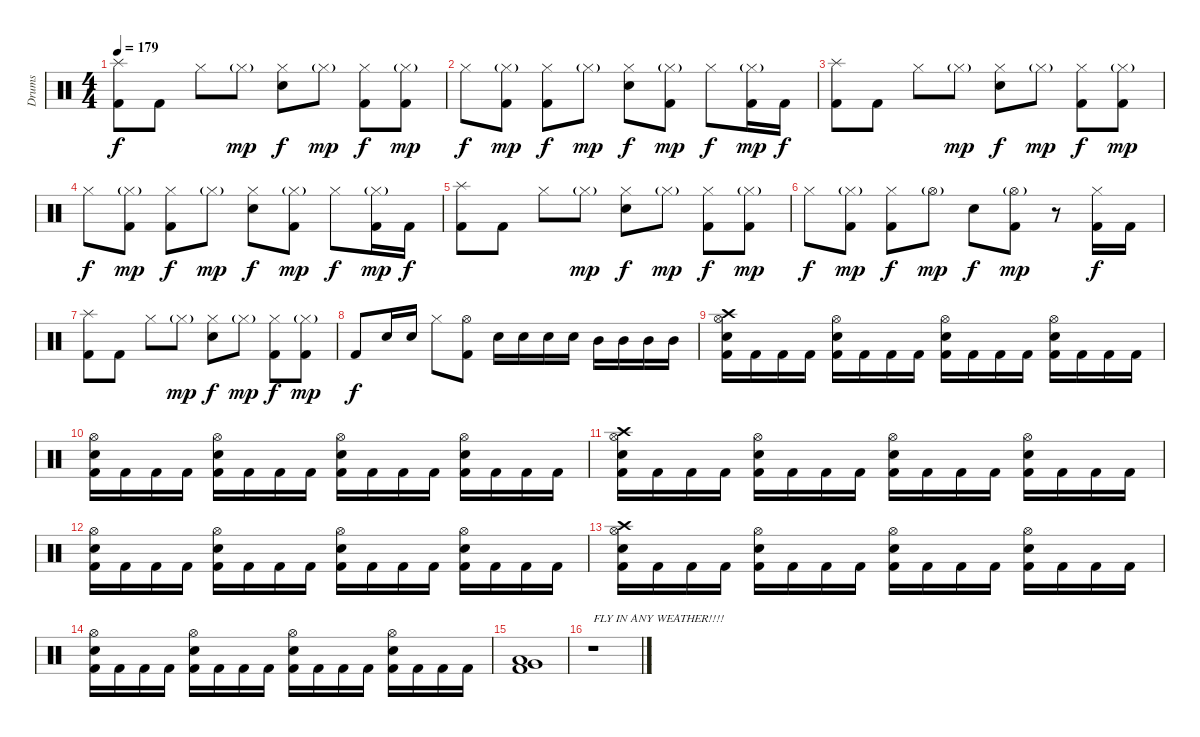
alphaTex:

\track ("Drums" "Drums") {instrument percussion}
\staff {score}
\articulation defaults
\ts (4 4)
\tempo 179
\clef neutral
\ks c
("Splash (hit)" "Kick (hit) 2").8{dy f} "Kick (hit) 2".8 "Hi-Hat (closed)".8 "Hi-Hat (closed)"{g}.8{dy mp} ("Hi-Hat (closed)" "Snare (hit) 2").8{dy f} "Hi-Hat (closed)"{g}.8{dy mp} ("Hi-Hat (closed)" "Kick (hit) 2").8{dy f} ("Hi-Hat (closed)"{g} "Kick (hit) 2").8{dy mp} |
"Hi-Hat (closed)".8{dy f} ("Hi-Hat (closed)"{g} "Kick (hit) 2").8{dy mp} ("Hi-Hat (closed)" "Kick (hit) 2").8{dy f} "Hi-Hat (closed)"{g}.8{dy mp} ("Hi-Hat (closed)" "Snare (hit) 2").8{dy f} ("Hi-Hat (closed)"{g} "Kick (hit) 2").8{dy mp} "Hi-Hat (closed)".8{dy f} ("Hi-Hat (closed)"{g} "Kick (hit) 2").16{dy mp} "Kick (hit) 2".16{dy f} |
("Splash (hit)" "Kick (hit) 2").8 "Kick (hit) 2".8 "Hi-Hat (closed)".8 "Hi-Hat (closed)"{g}.8{dy mp} ("Hi-Hat (closed)" "Snare (hit) 2").8{dy f} "Hi-Hat (closed)"{g}.8{dy mp} ("Hi-Hat (closed)" "Kick (hit) 2").8{dy f} ("Hi-Hat (closed)"{g} "Kick (hit) 2").8{dy mp} |
"Hi-Hat (closed)".8{dy f} ("Hi-Hat (closed)"{g} "Kick (hit) 2").8{dy mp} ("Hi-Hat (closed)" "Kick (hit) 2").8{dy f} "Hi-Hat (closed)"{g}.8{dy mp} ("Hi-Hat (closed)" "Snare (hit) 2").8{dy f} ("Hi-Hat (closed)"{g} "Kick (hit) 2").8{dy mp} "Hi-Hat (closed)".8{dy f} ("Hi-Hat (closed)"{g} "Kick (hit) 2").16{dy mp} "Kick (hit) 2".16{dy f} |
("Splash (hit)" "Kick (hit) 2").8 "Kick (hit) 2".8 "Hi-Hat (closed)".8 "Hi-Hat (closed)"{g}.8{dy mp} ("Hi-Hat (closed)" "Snare (hit) 2").8{dy f} "Hi-Hat (closed)"{g}.8{dy mp} ("Hi-Hat (closed)" "Kick (hit) 2").8{dy f} ("Hi-Hat (closed)"{g} "Kick (hit) 2").8{dy mp} |
"Hi-Hat (closed)".8{dy f} ("Hi-Hat (closed)"{g} "Kick (hit) 2").8{dy mp} ("Hi-Hat (closed)" "Kick (hit) 2").8{dy f} "Hi-Hat (open)"{g}.8{dy mp} "Snare (hit) 2".8{dy f} ("Hi-Hat (open)"{g} "Kick (hit) 2").8{dy mp} r.8 ("Hi-Hat (closed)" "Kick (hit) 2").16{dy f} "Kick (hit) 2".16 |
("Splash (hit)" "Kick (hit) 2").8 "Kick (hit) 2".8 "Hi-Hat (closed)".8 "Hi-Hat (closed)"{g}.8{dy mp} ("Hi-Hat (closed)" "Snare (hit) 2").8{dy f} "Hi-Hat (closed)"{g}.8{dy mp} ("Hi-Hat (closed)" "Kick (hit) 2").8{dy f} ("Hi-Hat (closed)"{g} "Kick (hit) 2").8{dy mp} |
"Kick (hit) 2".8{dy f} "Snare (hit) 2".16 "Snare (hit) 2".16 "Hi-Hat (closed)".8 ("Hi-Hat (open)" "Kick (hit) 2").8 "Snare (hit) 2".16 "Snare (hit) 2".16 "Snare (hit) 2".16 "Snare (hit) 2".16 "Mid Tom (hit)".16 "Mid Tom (hit)".16 "Mid Tom (hit)".16 "Mid Tom (hit)".16 |
("Crash high (hit)" "Hi-Hat (open)" "Snare (hit) 2" "Kick (hit) 2").16 "Kick (hit) 2".16 "Kick (hit) 2".16 "Kick (hit) 2".16 ("Hi-Hat (open)" "Snare (hit) 2" "Kick (hit) 2").16 "Kick (hit) 2".16 "Kick (hit) 2".16 "Kick (hit) 2".16 ("Hi-Hat (open)" "Snare (hit) 2" "Kick (hit) 2").16 "Kick (hit) 2".16 "Kick (hit) 2".16 "Kick (hit) 2".16 ("Hi-Hat (open)" "Snare (hit) 2" "Kick (hit) 2").16 "Kick (hit) 2".16 "Kick (hit) 2".16 "Kick (hit) 2".16 |
("Hi-Hat (open)" "Snare (hit) 2" "Kick (hit) 2").16 "Kick (hit) 2".16 "Kick (hit) 2".16 "Kick (hit) 2".16 ("Hi-Hat (open)" "Snare (hit) 2" "Kick (hit) 2").16 "Kick (hit) 2".16 "Kick (hit) 2".16 "Kick (hit) 2".16 ("Hi-Hat (open)" "Snare (hit) 2" "Kick (hit) 2").16 "Kick (hit) 2".16 "Kick (hit) 2".16 "Kick (hit) 2".16 ("Hi-Hat (open)" "Snare (hit) 2" "Kick (hit) 2").16 "Kick (hit) 2".16 "Kick (hit) 2".16 "Kick (hit) 2".16 |
("Crash high (hit)" "Hi-Hat (open)" "Snare (hit) 2" "Kick (hit) 2").16 "Kick (hit) 2".16 "Kick (hit) 2".16 "Kick (hit) 2".16 ("Hi-Hat (open)" "Snare (hit) 2" "Kick (hit) 2").16 "Kick (hit) 2".16 "Kick (hit) 2".16 "Kick (hit) 2".16 ("Hi-Hat (open)" "Snare (hit) 2" "Kick (hit) 2").16 "Kick (hit) 2".16 "Kick (hit) 2".16 "Kick (hit) 2".16 ("Hi-Hat (open)" "Snare (hit) 2" "Kick (hit) 2").16 "Kick (hit) 2".16 "Kick (hit) 2".16 "Kick (hit) 2".16 |
("Hi-Hat (open)" "Snare (hit) 2" "Kick (hit) 2").16 "Kick (hit) 2".16 "Kick (hit) 2".16 "Kick (hit) 2".16 ("Hi-Hat (open)" "Snare (hit) 2" "Kick (hit) 2").16 "Kick (hit) 2".16 "Kick (hit) 2".16 "Kick (hit) 2".16 ("Hi-Hat (open)" "Snare (hit) 2" "Kick (hit) 2").16 "Kick (hit) 2".16 "Kick (hit) 2".16 "Kick (hit) 2".16 ("Hi-Hat (open)" "Snare (hit) 2" "Kick (hit) 2").16 "Kick (hit) 2".16 "Kick (hit) 2".16 "Kick (hit) 2".16 |
("Crash high (hit)" "Hi-Hat (open)" "Snare (hit) 2" "Kick (hit) 2").16 "Kick (hit) 2".16 "Kick (hit) 2".16 "Kick (hit) 2".16 ("Hi-Hat (open)" "Snare (hit) 2" "Kick (hit) 2").16 "Kick (hit) 2".16 "Kick (hit) 2".16 "Kick (hit) 2".16 ("Hi-Hat (open)" "Snare (hit) 2" "Kick (hit) 2").16 "Kick (hit) 2".16 "Kick (hit) 2".16 "Kick (hit) 2".16 ("Hi-Hat (open)" "Snare (hit) 2" "Kick (hit) 2").16 "Kick (hit) 2".16 "Kick (hit) 2".16 "Kick (hit) 2".16 |
("Hi-Hat (open)" "Snare (hit) 2" "Kick (hit) 2").16 "Kick (hit) 2".16 "Kick (hit) 2".16 "Kick (hit) 2".16 ("Hi-Hat (open)" "Snare (hit) 2" "Kick (hit) 2").16 "Kick (hit) 2".16 "Kick (hit) 2".16 "Kick (hit) 2".16 ("Hi-Hat (open)" "Snare (hit) 2" "Kick (hit) 2").16 "Kick (hit) 2".16 "Kick (hit) 2".16 "Kick (hit) 2".16 ("Hi-Hat (open)" "Snare (hit) 2" "Kick (hit) 2").16 "Kick (hit) 2".16 "Kick (hit) 2".16 "Kick (hit) 2".16 |
("Very Low Tom (hit)" "Low Tom (hit)" "Kick (hit) 2").1 |
r.1{txt "FLY IN ANY WEATHER!!!!"}
